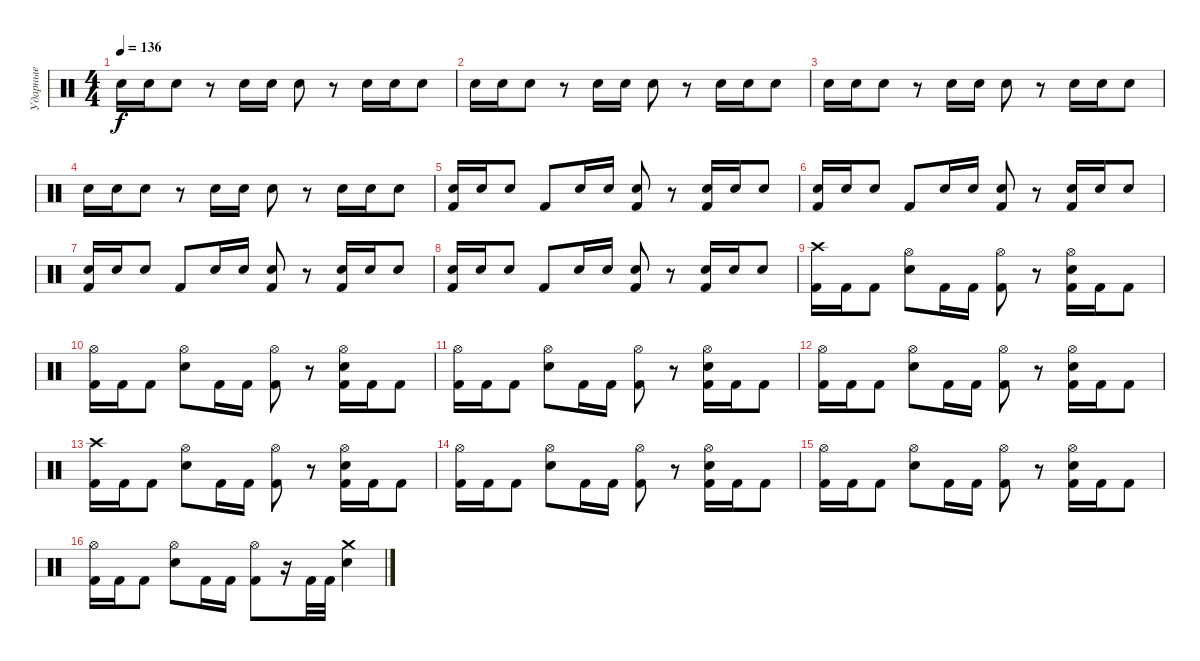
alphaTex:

\track ("Ударные" "Ударные") {instrument percussion}
\staff {score}
\articulation defaults
\ts (4 4)
\tempo 136
\clef neutral
\ks c "Snare (hit) 2".16{dy f} "Snare (hit) 2".16 "Snare (hit) 2".8
r.8 "Snare (hit) 2".16 "Snare (hit) 2".16 "Snare (hit) 2".8 r.8 "Snare (hit) 2".16 "Snare (hit) 2".16 "Snare (hit) 2".8 |
"Snare (hit) 2".16 "Snare (hit) 2".16 "Snare (hit) 2".8 r.8 "Snare (hit) 2".16 "Snare (hit) 2".16 "Snare (hit) 2".8 r.8 "Snare (hit) 2".16 "Snare (hit) 2".16 "Snare (hit) 2".8 |
"Snare (hit) 2".16 "Snare (hit) 2".16 "Snare (hit) 2".8 r.8 "Snare (hit) 2".16 "Snare (hit) 2".16 "Snare (hit) 2".8 r.8 "Snare (hit) 2".16 "Snare (hit) 2".16 "Snare (hit) 2".8 |
"Snare (hit) 2".16 "Snare (hit) 2".16 "Snare (hit) 2".8 r.8 "Snare (hit) 2".16 "Snare (hit) 2".16 "Snare (hit) 2".8 r.8 "Snare (hit) 2".16 "Snare (hit) 2".16 "Snare (hit) 2".8 |
("Snare (hit) 2" "Kick (hit) 2").16 "Snare (hit) 2".16 "Snare (hit) 2".8 "Kick (hit) 2".8 "Snare (hit) 2".16 "Snare (hit) 2".16 ("Snare (hit) 2" "Kick (hit) 2").8 r.8 ("Snare (hit) 2" "Kick (hit) 2").16 "Snare (hit) 2".16 "Snare (hit) 2".8 |
("Snare (hit) 2" "Kick (hit) 2").16 "Snare (hit) 2".16 "Snare (hit) 2".8 "Kick (hit) 2".8 "Snare (hit) 2".16 "Snare (hit) 2".16 ("Snare (hit) 2" "Kick (hit) 2").8 r.8 ("Snare (hit) 2" "Kick (hit) 2").16 "Snare (hit) 2".16 "Snare (hit) 2".8 |
("Snare (hit) 2" "Kick (hit) 2").16 "Snare (hit) 2".16 "Snare (hit) 2".8 "Kick (hit) 2".8 "Snare (hit) 2".16 "Snare (hit) 2".16 ("Snare (hit) 2" "Kick (hit) 2").8 r.8 ("Snare (hit) 2" "Kick (hit) 2").16 "Snare (hit) 2".16 "Snare (hit) 2".8 |
("Snare (hit) 2" "Kick (hit) 2").16 "Snare (hit) 2".16 "Snare (hit) 2".8 "Kick (hit) 2".8 "Snare (hit) 2".16 "Snare (hit) 2".16 ("Snare (hit) 2" "Kick (hit) 2").8 r.8 ("Snare (hit) 2" "Kick (hit) 2").16 "Snare (hit) 2".16 "Snare (hit) 2".8 |
("Crash high (hit)" "Kick (hit) 2").16 "Kick (hit) 2".16 "Kick (hit) 2".8 ("Hi-Hat (open)" "Snare (hit) 2").8 "Kick (hit) 2".16 "Kick (hit) 2".16 ("Hi-Hat (open)" "Kick (hit) 2").8 r.8 ("Hi-Hat (open)" "Snare (hit) 2" "Kick (hit) 2").16 "Kick (hit) 2".16 "Kick (hit) 2".8 |
("Hi-Hat (open)" "Kick (hit) 2").16 "Kick (hit) 2".16 "Kick (hit) 2".8 ("Hi-Hat (open)" "Snare (hit) 2").8 "Kick (hit) 2".16 "Kick (hit) 2".16 ("Hi-Hat (open)" "Kick (hit) 2").8 r.8 ("Hi-Hat (open)" "Snare (hit) 2" "Kick (hit) 2").16 "Kick (hit) 2".16 "Kick (hit) 2".8 |
("Hi-Hat (open)" "Kick (hit) 2").16 "Kick (hit) 2".16 "Kick (hit) 2".8 ("Hi-Hat (open)" "Snare (hit) 2").8 "Kick (hit) 2".16 "Kick (hit) 2".16 ("Hi-Hat (open)" "Kick (hit) 2").8 r.8 ("Hi-Hat (open)" "Snare (hit) 2" "Kick (hit) 2").16 "Kick (hit) 2".16 "Kick (hit) 2".8 |
("Hi-Hat (open)" "Kick (hit) 2").16 "Kick (hit) 2".16 "Kick (hit) 2".8 ("Hi-Hat (open)" "Snare (hit) 2").8 "Kick (hit) 2".16 "Kick (hit) 2".16 ("Hi-Hat (open)" "Kick (hit) 2").8 r.8 ("Hi-Hat (open)" "Snare (hit) 2" "Kick (hit) 2").16 "Kick (hit) 2".16 "Kick (hit) 2".8 |
("Crash high (hit)" "Kick (hit) 2").16 "Kick (hit) 2".16 "Kick (hit) 2".8 ("Hi-Hat (open)" "Snare (hit) 2").8 "Kick (hit) 2".16 "Kick (hit) 2".16 ("Hi-Hat (open)" "Kick (hit) 2").8 r.8 ("Hi-Hat (open)" "Snare (hit) 2" "Kick (hit) 2").16 "Kick (hit) 2".16 "Kick (hit) 2".8 |
("Hi-Hat (open)" "Kick (hit) 2").16 "Kick (hit) 2".16 "Kick (hit) 2".8 ("Hi-Hat (open)" "Snare (hit) 2").8 "Kick (hit) 2".16 "Kick (hit) 2".16 ("Hi-Hat (open)" "Kick (hit) 2").8 r.8 ("Hi-Hat (open)" "Snare (hit) 2" "Kick (hit) 2").16 "Kick (hit) 2".16 "Kick (hit) 2".8 |
("Hi-Hat (open)" "Kick (hit) 2").16 "Kick (hit) 2".16 "Kick (hit) 2".8 ("Hi-Hat (open)" "Snare (hit) 2").8 "Kick (hit) 2".16 "Kick (hit) 2".16 ("Hi-Hat (open)" "Kick (hit) 2").8 r.8 ("Hi-Hat (open)" "Snare (hit) 2" "Kick (hit) 2").16 "Kick (hit) 2".16 "Kick (hit) 2".8 |
("Hi-Hat (open)" "Kick (hit) 2").16 "Kick (hit) 2".16 "Kick (hit) 2".8 ("Hi-Hat (open)" "Snare (hit) 2").8 "Kick (hit) 2".16 "Kick (hit) 2".16 ("Hi-Hat (open)" "Kick (hit) 2").8 r.16 "Kick (hit) 2".32 "Kick (hit) 2".32 ("Crash medium (hit)" "Snare (hit) 2").4
